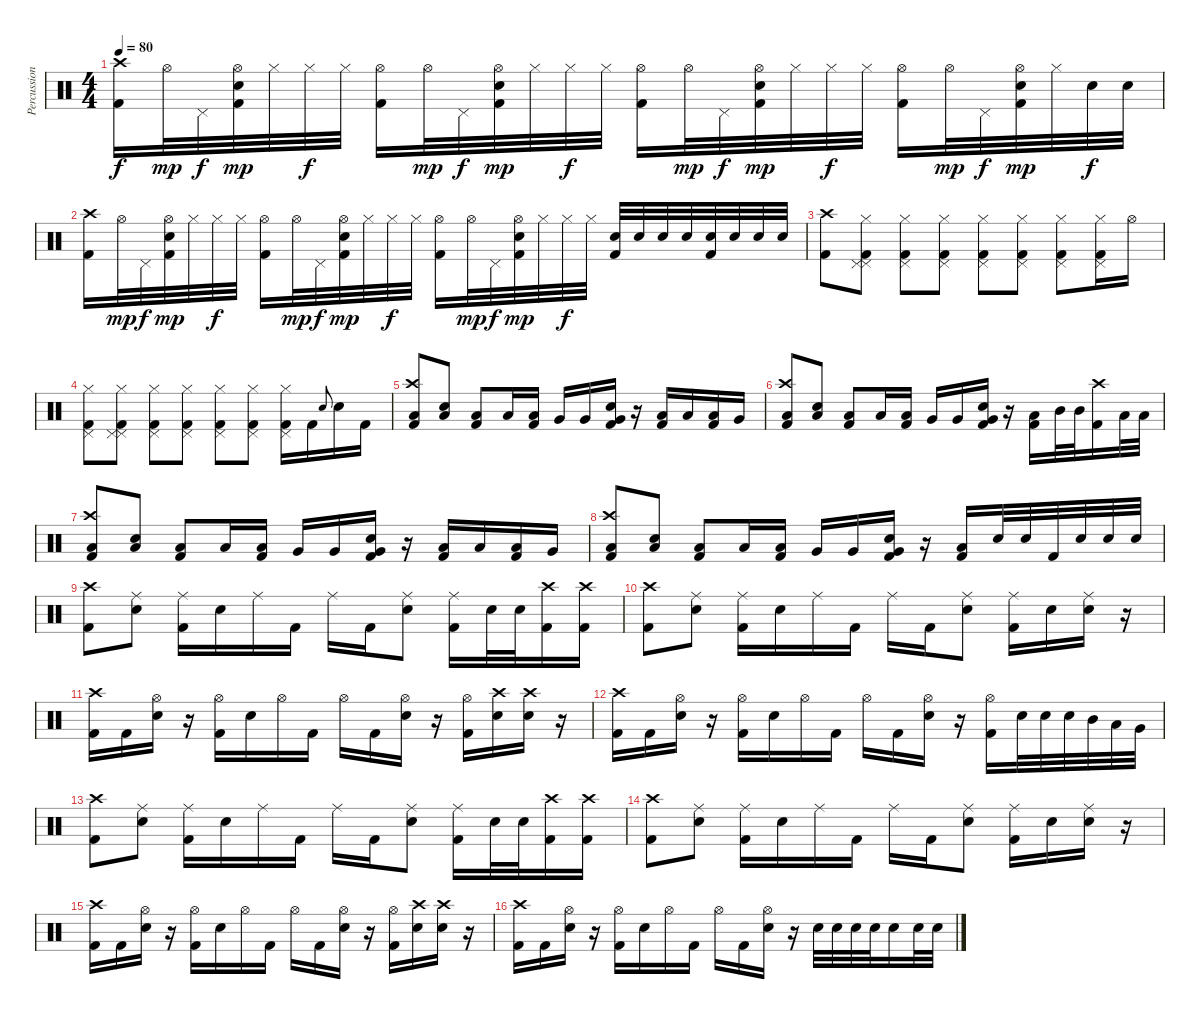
\track ("Percussion" "Percussion") {instrument percussion}
\staff {score}
\articulation defaults
\ts (4 4)
\tempo 80
\clef neutral
\ks c
("Kick (hit) 2" "Crash high (hit)").16{dy f} "Hi-Hat (open)".32{dy mp} "Pedal Hi-Hat (hit)".32{dy f} ("Hi-Hat (open)" "Electric Snare (hit)" "Kick (hit) 2").32{dy mp} "Hi-Hat (closed)".32 "Hi-Hat (closed)".32{dy f} "Hi-Hat (closed)".32 ("Kick (hit) 2" "Hi-Hat (open)").16 "Hi-Hat (open)".32{dy mp} "Pedal Hi-Hat (hit)".32{dy f} ("Hi-Hat (open)" "Electric Snare (hit)" "Kick (hit) 2").32{dy mp} "Hi-Hat (closed)".32 "Hi-Hat (closed)".32{dy f} "Hi-Hat (closed)".32 ("Kick (hit) 2" "Hi-Hat (open)").16 "Hi-Hat (open)".32{dy mp} "Pedal Hi-Hat (hit)".32{dy f} ("Hi-Hat (open)" "Electric Snare (hit)" "Kick (hit) 2").32{dy mp} "Hi-Hat (closed)".32 "Hi-Hat (closed)".32{dy f} "Hi-Hat (closed)".32 ("Kick (hit) 2" "Hi-Hat (open)").16 "Hi-Hat (open)".32{dy mp} "Pedal Hi-Hat (hit)".32{dy f} ("Hi-Hat (open)" "Electric Snare (hit)" "Kick (hit) 2").32{dy mp} "Hi-Hat (closed)".32 "Electric Snare (hit)".32{dy f} "Electric Snare (hit)".32 |
("Kick (hit) 2" "Crash high (hit)").16 "Hi-Hat (open)".32{dy mp} "Pedal Hi-Hat (hit)".32{dy f} ("Hi-Hat (open)" "Electric Snare (hit)" "Kick (hit) 2").32{dy mp} "Hi-Hat (closed)".32 "Hi-Hat (closed)".32{dy f} "Hi-Hat (closed)".32 ("Kick (hit) 2" "Hi-Hat (open)").16 "Hi-Hat (open)".32{dy mp} "Pedal Hi-Hat (hit)".32{dy f} ("Hi-Hat (open)" "Electric Snare (hit)" "Kick (hit) 2").32{dy mp} "Hi-Hat (closed)".32 "Hi-Hat (closed)".32{dy f} "Hi-Hat (closed)".32 ("Kick (hit) 2" "Hi-Hat (open)").16 "Hi-Hat (open)".32{dy mp} "Pedal Hi-Hat (hit)".32{dy f} ("Hi-Hat (open)" "Electric Snare (hit)" "Kick (hit) 2").32{dy mp} "Hi-Hat (closed)".32 "Hi-Hat (closed)".32{dy f} "Hi-Hat (closed)".32 ("Electric Snare (hit)" "Kick (hit) 2").32 "Electric Snare (hit)".32 "Electric Snare (hit)".32 "Electric Snare (hit)".32 ("Electric Snare (hit)" "Kick (hit) 2").32 "Electric Snare (hit)".32 "Electric Snare (hit)".32 "Electric Snare (hit)".32 |
("Kick (hit) 2" "Crash high (hit)").8 ("Kick (hit) 2" "Pedal Hi-Hat (hit)" "Pedal Hi-Hat (hit)" "Hi-Hat (closed)").8 ("Kick (hit) 2" "Pedal Hi-Hat (hit)" "Hi-Hat (closed)").8 ("Kick (hit) 2" "Pedal Hi-Hat (hit)" "Hi-Hat (closed)").8 ("Kick (hit) 2" "Pedal Hi-Hat (hit)" "Hi-Hat (closed)").8 ("Kick (hit) 2" "Hi-Hat (closed)" "Pedal Hi-Hat (hit)").8 ("Kick (hit) 2" "Pedal Hi-Hat (hit)" "Hi-Hat (closed)").8 ("Kick (hit) 2" "Pedal Hi-Hat (hit)" "Hi-Hat (closed)").16 "Hi-Hat (open)".16 |
("Kick (hit) 2" "Pedal Hi-Hat (hit)" "Hi-Hat (closed)").8 ("Kick (hit) 2" "Pedal Hi-Hat (hit)" "Pedal Hi-Hat (hit)" "Hi-Hat (closed)").8 ("Kick (hit) 2" "Pedal Hi-Hat (hit)" "Hi-Hat (closed)").8 ("Kick (hit) 2" "Pedal Hi-Hat (hit)" "Hi-Hat (closed)").8 ("Kick (hit) 2" "Pedal Hi-Hat (hit)" "Hi-Hat (closed)").8 ("Kick (hit) 2" "Hi-Hat (closed)" "Pedal Hi-Hat (hit)").8 ("Kick (hit) 2" "Pedal Hi-Hat (hit)" "Hi-Hat (closed)").16 "Kick (hit) 2".16 "Electric Snare (hit)".8{gr onbeat} "Electric Snare (hit)".16 "Kick (hit) 2".16 |
("Kick (hit) 2" "Low Floor Tom (hit)" "Crash high (hit)").8 ("Electric Snare (hit)" "Low Floor Tom (hit)").8 ("Kick (hit) 2" "Low Floor Tom (hit)").8 "Low Tom (hit)".16 ("Low Floor Tom (hit)" "Kick (hit) 2").16 "Very Low Tom (hit)".16 "Very Low Tom (hit)".16 ("Electric Snare (hit)" "Kick (hit) 2" "Very Low Tom (hit)").16 r.16 ("Kick (hit) 2" "Low Floor Tom (hit)").16 "Low Tom (hit)".16 ("Kick (hit) 2" "Low Floor Tom (hit)").16 "Very Low Tom (hit)".16 |
("Kick (hit) 2" "Low Floor Tom (hit)" "Crash high (hit)").8 ("Electric Snare (hit)" "Low Floor Tom (hit)").8 ("Kick (hit) 2" "Low Floor Tom (hit)").8 "Low Tom (hit)".16 ("Low Floor Tom (hit)" "Kick (hit) 2").16 "Very Low Tom (hit)".16 "Very Low Tom (hit)".16 ("Electric Snare (hit)" "Kick (hit) 2" "Very Low Tom (hit)").16 r.16 ("Kick (hit) 2" "Low Floor Tom (hit)").16 "Mid Tom (hit)".32 "Mid Tom (hit)".32 ("Kick (hit) 2" "Crash high (hit)").16 "Low Tom (hit)".32 "Low Tom (hit)".32 |
("Kick (hit) 2" "Low Floor Tom (hit)" "Crash high (hit)").8 ("Electric Snare (hit)" "Low Floor Tom (hit)").8 ("Kick (hit) 2" "Low Floor Tom (hit)").8 "Low Tom (hit)".16 ("Low Floor Tom (hit)" "Kick (hit) 2").16 "Very Low Tom (hit)".16 "Very Low Tom (hit)".16 ("Electric Snare (hit)" "Kick (hit) 2" "Very Low Tom (hit)").16 r.16 ("Kick (hit) 2" "Low Floor Tom (hit)").16 "Low Tom (hit)".16 ("Kick (hit) 2" "Low Floor Tom (hit)").16 "Very Low Tom (hit)".16 |
("Kick (hit) 2" "Low Floor Tom (hit)" "Crash high (hit)").8 ("Electric Snare (hit)" "Low Floor Tom (hit)").8 ("Kick (hit) 2" "Low Floor Tom (hit)").8 "Low Tom (hit)".16 ("Low Floor Tom (hit)" "Kick (hit) 2").16 "Very Low Tom (hit)".16 "Very Low Tom (hit)".16 ("Electric Snare (hit)" "Kick (hit) 2" "Very Low Tom (hit)").16 r.16 ("Kick (hit) 2" "Low Floor Tom (hit)").16 "Electric Snare (hit)".32 "Electric Snare (hit)".32 "Kick (hit) 2".32 "Electric Snare (hit)".32 "Electric Snare (hit)".32 "Electric Snare (hit)".32 |
("Crash high (hit)" "Kick (hit) 2").8 ("Electric Snare (hit)" "Ride (middle)").8 ("Kick (hit) 2" "Ride (middle)").16 "Electric Snare (hit)".16 "Ride (middle)".16 "Kick (hit) 2".16 "Ride (middle)".16 "Kick (hit) 2".16 ("Electric Snare (hit)" "Ride (middle)").8 ("Kick (hit) 2" "Ride (middle)").16 "Electric Snare (hit)".32 "Electric Snare (hit)".32 ("Kick (hit) 2" "Crash high (hit)").16 ("Kick (hit) 2" "Crash high (hit)").16 |
("Crash high (hit)" "Kick (hit) 2").8 ("Electric Snare (hit)" "Ride (middle)").8 ("Kick (hit) 2" "Ride (middle)").16 "Electric Snare (hit)".16 "Ride (middle)".16 "Kick (hit) 2".16 "Ride (middle)".16 "Kick (hit) 2".16 ("Electric Snare (hit)" "Ride (middle)").8 ("Kick (hit) 2" "Ride (middle)").16 "Electric Snare (hit)".16 ("Electric Snare (hit)" "Ride (middle)").16 r.16 |
("Kick (hit) 2" "Crash high (hit)").16 "Kick (hit) 2".16 ("Electric Snare (hit)" "Hi-Hat (open)").16 r.16 ("Kick (hit) 2" "Hi-Hat (open)").16 "Electric Snare (hit)".16 "Hi-Hat (open)".16 "Kick (hit) 2".16 "Hi-Hat (open)".16 "Kick (hit) 2".16 ("Electric Snare (hit)" "Hi-Hat (open)").16 r.16 ("Kick (hit) 2" "Hi-Hat (open)").16 ("Electric Snare (hit)" "Crash high (hit)").16 ("Electric Snare (hit)" "Crash high (hit)").16 r.16 |
("Kick (hit) 2" "Crash high (hit)").16 "Kick (hit) 2".16 ("Electric Snare (hit)" "Hi-Hat (open)").16 r.16 ("Kick (hit) 2" "Hi-Hat (open)").16 "Electric Snare (hit)".16 "Hi-Hat (open)".16 "Kick (hit) 2".16 "Hi-Hat (open)".16 "Kick (hit) 2".16 ("Electric Snare (hit)" "Hi-Hat (open)").16 r.16 ("Kick (hit) 2" "Hi-Hat (open)").16 "Electric Snare (hit)".32 "Electric Snare (hit)".32 "Electric Snare (hit)".32 "Mid Tom (hit)".32 "Low Tom (hit)".32 "Very Low Tom (hit)".32 |
("Crash high (hit)" "Kick (hit) 2").8 ("Electric Snare (hit)" "Ride (middle)").8 ("Kick (hit) 2" "Ride (middle)").16 "Electric Snare (hit)".16 "Ride (middle)".16 "Kick (hit) 2".16 "Ride (middle)".16 "Kick (hit) 2".16 ("Electric Snare (hit)" "Ride (middle)").8 ("Kick (hit) 2" "Ride (middle)").16 "Electric Snare (hit)".32 "Electric Snare (hit)".32 ("Kick (hit) 2" "Crash high (hit)").16 ("Kick (hit) 2" "Crash high (hit)").16 |
("Crash high (hit)" "Kick (hit) 2").8 ("Electric Snare (hit)" "Ride (middle)").8 ("Kick (hit) 2" "Ride (middle)").16 "Electric Snare (hit)".16 "Ride (middle)".16 "Kick (hit) 2".16 "Ride (middle)".16 "Kick (hit) 2".16 ("Electric Snare (hit)" "Ride (middle)").8 ("Kick (hit) 2" "Ride (middle)").16 "Electric Snare (hit)".16 ("Electric Snare (hit)" "Ride (middle)").16 r.16 |
("Kick (hit) 2" "Crash high (hit)").16 "Kick (hit) 2".16 ("Electric Snare (hit)" "Hi-Hat (open)").16 r.16 ("Kick (hit) 2" "Hi-Hat (open)").16 "Electric Snare (hit)".16 "Hi-Hat (open)".16 "Kick (hit) 2".16 "Hi-Hat (open)".16 "Kick (hit) 2".16 ("Electric Snare (hit)" "Hi-Hat (open)").16 r.16 ("Kick (hit) 2" "Hi-Hat (open)").16 ("Electric Snare (hit)" "Crash high (hit)").16 ("Electric Snare (hit)" "Crash high (hit)").16 r.16 |
("Kick (hit) 2" "Crash high (hit)").16 "Kick (hit) 2".16 ("Electric Snare (hit)" "Hi-Hat (open)").16 r.16 ("Kick (hit) 2" "Hi-Hat (open)").16 "Electric Snare (hit)".16 "Hi-Hat (open)".16 "Kick (hit) 2".16 "Hi-Hat (open)".16 "Kick (hit) 2".16 ("Electric Snare (hit)" "Hi-Hat (open)").16 r.16 "Electric Snare (hit)".32 "Electric Snare (hit)".32 "Electric Snare (hit)".32 "Electric Snare (hit)".32 "Electric Snare (hit)".16 "Electric Snare (hit)".32 "Electric Snare (hit)".32
